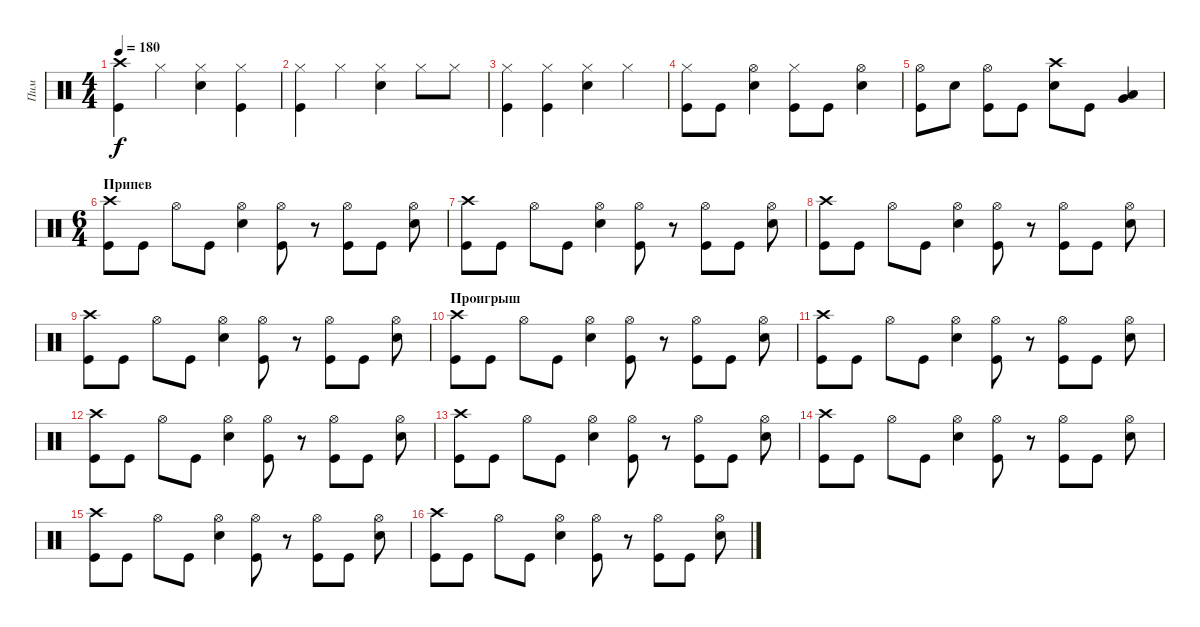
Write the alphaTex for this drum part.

\track ("Пим" "Пим") {instrument percussion}
\staff {score}
\articulation defaults
\ts (4 4)
\tempo 180
\clef neutral
\ks c
("Crash high (hit)" "Kick (hit)").4{dy f} "Hi-Hat (closed)".4 ("Hi-Hat (closed)" "Snare (hit) 2").4 ("Hi-Hat (closed)" "Kick (hit)").4 |
("Hi-Hat (closed)" "Kick (hit)").4 "Hi-Hat (closed)".4 ("Hi-Hat (closed)" "Snare (hit) 2").4 "Hi-Hat (closed)".8 "Hi-Hat (closed)".8 |
("Hi-Hat (closed)" "Kick (hit)").4 ("Hi-Hat (closed)" "Kick (hit)").4 ("Hi-Hat (closed)" "Snare (hit) 2").4 "Hi-Hat (closed)".4 |
("Hi-Hat (closed)" "Kick (hit)").8 "Kick (hit)".8 ("Hi-Hat (open)" "Snare (hit) 2").4 ("Hi-Hat (closed)" "Kick (hit)").8 "Kick (hit)".8 ("Hi-Hat (open)" "Snare (hit) 2").4 |
("Hi-Hat (open)" "Kick (hit)").8 "Snare (hit) 2".8 ("Hi-Hat (open)" "Kick (hit)").8 "Kick (hit)".8 ("Crash high (hit)" "Snare (hit) 2").8 "Kick (hit)".8 ("Low Tom (hit)" "Very Low Tom (hit)").4 |
\ts (6 4)
\section ("" "Припев")
("Crash high (hit)" "Kick (hit)").8 "Kick (hit)".8 "Hi-Hat (open)".8 "Kick (hit)".8 ("Hi-Hat (open)" "Snare (hit) 2").4 ("Hi-Hat (open)" "Kick (hit)").8 r.8 ("Hi-Hat (open)" "Kick (hit)").8 "Kick (hit)".8 ("Hi-Hat (open)" "Snare (hit) 2").8 |
("Crash high (hit)" "Kick (hit)").8 "Kick (hit)".8 "Hi-Hat (open)".8 "Kick (hit)".8 ("Hi-Hat (open)" "Snare (hit) 2").4 ("Hi-Hat (open)" "Kick (hit)").8 r.8 ("Hi-Hat (open)" "Kick (hit)").8 "Kick (hit)".8 ("Hi-Hat (open)" "Snare (hit) 2").8 |
("Crash high (hit)" "Kick (hit)").8 "Kick (hit)".8 "Hi-Hat (open)".8 "Kick (hit)".8 ("Hi-Hat (open)" "Snare (hit) 2").4 ("Hi-Hat (open)" "Kick (hit)").8 r.8 ("Hi-Hat (open)" "Kick (hit)").8 "Kick (hit)".8 ("Hi-Hat (open)" "Snare (hit) 2").8 |
("Crash high (hit)" "Kick (hit)").8 "Kick (hit)".8 "Hi-Hat (open)".8 "Kick (hit)".8 ("Hi-Hat (open)" "Snare (hit) 2").4 ("Hi-Hat (open)" "Kick (hit)").8 r.8 ("Hi-Hat (open)" "Kick (hit)").8 "Kick (hit)".8 ("Hi-Hat (open)" "Snare (hit) 2").8 |
\section ("" "Проигрыш")
("Crash high (hit)" "Kick (hit)").8 "Kick (hit)".8 "Hi-Hat (open)".8 "Kick (hit)".8 ("Hi-Hat (open)" "Snare (hit) 2").4 ("Hi-Hat (open)" "Kick (hit)").8 r.8 ("Hi-Hat (open)" "Kick (hit)").8 "Kick (hit)".8 ("Hi-Hat (open)" "Snare (hit) 2").8 |
("Crash high (hit)" "Kick (hit)").8 "Kick (hit)".8 "Hi-Hat (open)".8 "Kick (hit)".8 ("Hi-Hat (open)" "Snare (hit) 2").4 ("Hi-Hat (open)" "Kick (hit)").8 r.8 ("Hi-Hat (open)" "Kick (hit)").8 "Kick (hit)".8 ("Hi-Hat (open)" "Snare (hit) 2").8 |
("Crash high (hit)" "Kick (hit)").8 "Kick (hit)".8 "Hi-Hat (open)".8 "Kick (hit)".8 ("Hi-Hat (open)" "Snare (hit) 2").4 ("Hi-Hat (open)" "Kick (hit)").8 r.8 ("Hi-Hat (open)" "Kick (hit)").8 "Kick (hit)".8 ("Hi-Hat (open)" "Snare (hit) 2").8 |
("Crash high (hit)" "Kick (hit)").8 "Kick (hit)".8 "Hi-Hat (open)".8 "Kick (hit)".8 ("Hi-Hat (open)" "Snare (hit) 2").4 ("Hi-Hat (open)" "Kick (hit)").8 r.8 ("Hi-Hat (open)" "Kick (hit)").8 "Kick (hit)".8 ("Hi-Hat (open)" "Snare (hit) 2").8 |
("Crash high (hit)" "Kick (hit)").8 "Kick (hit)".8 "Hi-Hat (open)".8 "Kick (hit)".8 ("Hi-Hat (open)" "Snare (hit) 2").4 ("Hi-Hat (open)" "Kick (hit)").8 r.8 ("Hi-Hat (open)" "Kick (hit)").8 "Kick (hit)".8 ("Hi-Hat (open)" "Snare (hit) 2").8 |
("Crash high (hit)" "Kick (hit)").8 "Kick (hit)".8 "Hi-Hat (open)".8 "Kick (hit)".8 ("Hi-Hat (open)" "Snare (hit) 2").4 ("Hi-Hat (open)" "Kick (hit)").8 r.8 ("Hi-Hat (open)" "Kick (hit)").8 "Kick (hit)".8 ("Hi-Hat (open)" "Snare (hit) 2").8 |
("Crash high (hit)" "Kick (hit)").8 "Kick (hit)".8 "Hi-Hat (open)".8 "Kick (hit)".8 ("Hi-Hat (open)" "Snare (hit) 2").4 ("Hi-Hat (open)" "Kick (hit)").8 r.8 ("Hi-Hat (open)" "Kick (hit)").8 "Kick (hit)".8 ("Hi-Hat (open)" "Snare (hit) 2").8
